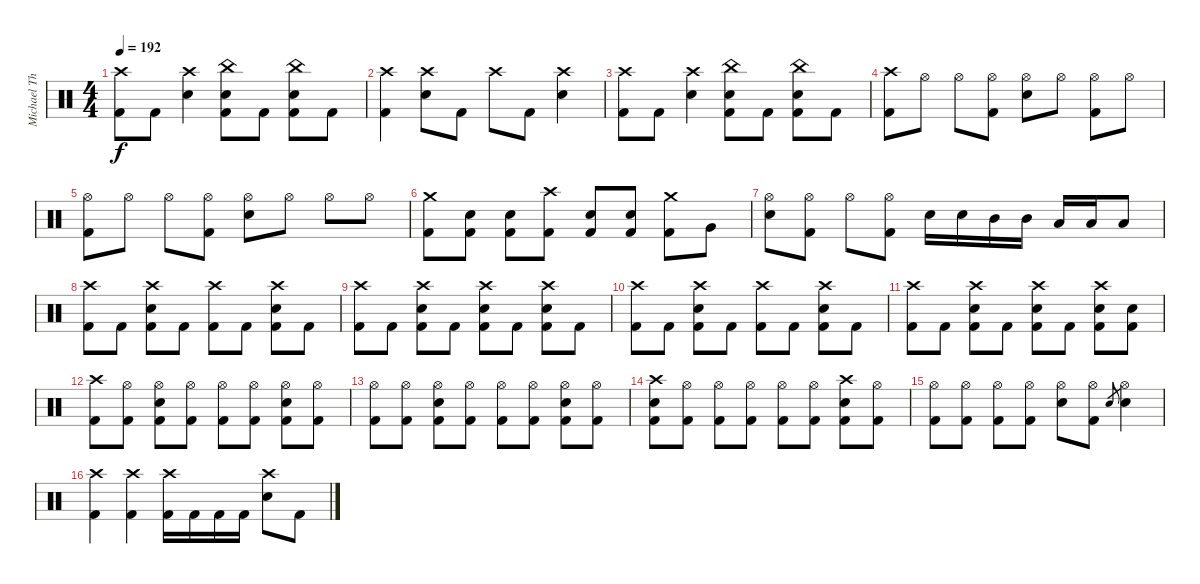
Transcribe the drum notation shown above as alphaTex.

\track ("Michael Thomas (Drums)" "Michael Th") {instrument percussion}
\staff {score}
\articulation defaults
\ts (4 4)
\tempo 192
\clef neutral
\ks c
("Crash high (hit)" "Kick (hit) 2").8{dy f} "Kick (hit) 2".8 ("Crash high (hit)" "Snare (hit) 2").4 ("China (hit)" "Snare (hit) 2" "Kick (hit) 2").8 "Kick (hit) 2".8 ("China (hit)" "Snare (hit) 2" "Kick (hit) 2").8 "Kick (hit) 2".8 |
("Crash high (hit)" "Kick (hit) 2").4 ("Crash high (hit)" "Snare (hit) 2").8 "Kick (hit) 2".8 "Crash high (hit)".8 "Kick (hit) 2".8 ("Crash high (hit)" "Snare (hit) 2").4 |
("Crash high (hit)" "Kick (hit) 2").8 "Kick (hit) 2".8 ("Crash high (hit)" "Snare (hit) 2").4 ("China (hit)" "Snare (hit) 2" "Kick (hit) 2").8 "Kick (hit) 2".8 ("China (hit)" "Snare (hit) 2" "Kick (hit) 2").8 "Kick (hit) 2".8 |
("Crash high (hit)" "Kick (hit) 2").8 "Hi-Hat (open)".8 "Hi-Hat (open)".8 ("Hi-Hat (open)" "Kick (hit) 2").8 ("Hi-Hat (open)" "Snare (hit) 2").8 "Hi-Hat (open)".8 ("Hi-Hat (open)" "Kick (hit) 2").8 "Hi-Hat (open)".8 |
("Hi-Hat (open)" "Kick (hit) 2").8 "Hi-Hat (open)".8 "Hi-Hat (open)".8 ("Hi-Hat (open)" "Kick (hit) 2").8 ("Hi-Hat (open)" "Snare (hit) 2").8 "Hi-Hat (open)".8 "Hi-Hat (open)".8 "Hi-Hat (open)".8 |
("Crash medium (hit)" "Kick (hit) 2").8 ("Snare (hit) 2" "Kick (hit) 2").8 ("Snare (hit) 2" "Kick (hit) 2").8 ("Crash high (hit)" "Kick (hit) 2").8 ("Snare (hit) 2" "Kick (hit) 2").8 ("Snare (hit) 2" "Kick (hit) 2").8 ("Crash medium (hit)" "Kick (hit) 2").8 "Very Low Tom (hit)".8 |
("Hi-Hat (open)" "Snare (hit) 2").8 ("Hi-Hat (open)" "Kick (hit) 2").8 "Hi-Hat (open)".8 ("Hi-Hat (open)" "Kick (hit) 2").8 "Snare (hit) 2".16 "Snare (hit) 2".16 "Mid Tom (hit)".16 "Mid Tom (hit)".16 "Low Tom (hit)".16 "Low Tom (hit)".16 "Low Floor Tom (hit)".8 |
("Crash high (hit)" "Kick (hit) 2").8 "Kick (hit) 2".8 ("Snare (hit) 2" "Crash high (hit)" "Kick (hit) 2").8 "Kick (hit) 2".8 ("Crash high (hit)" "Kick (hit) 2").8 "Kick (hit) 2".8 ("Snare (hit) 2" "Crash high (hit)" "Kick (hit) 2").8 "Kick (hit) 2".8 |
("Crash high (hit)" "Kick (hit) 2").8 "Kick (hit) 2".8 ("Snare (hit) 2" "Crash high (hit)" "Kick (hit) 2").8 "Kick (hit) 2".8 ("Crash high (hit)" "Snare (hit) 2" "Kick (hit) 2").8 "Kick (hit) 2".8 ("Crash high (hit)" "Snare (hit) 2" "Kick (hit) 2").8 "Kick (hit) 2".8 |
("Crash high (hit)" "Kick (hit) 2").8 "Kick (hit) 2".8 ("Snare (hit) 2" "Crash high (hit)" "Kick (hit) 2").8 "Kick (hit) 2".8 ("Crash high (hit)" "Kick (hit) 2").8 "Kick (hit) 2".8 ("Snare (hit) 2" "Crash high (hit)" "Kick (hit) 2").8 "Kick (hit) 2".8 |
("Crash high (hit)" "Kick (hit) 2").8 "Kick (hit) 2".8 ("Snare (hit) 2" "Crash high (hit)" "Kick (hit) 2").8 "Kick (hit) 2".8 ("Crash high (hit)" "Snare (hit) 2" "Kick (hit) 2").8 "Kick (hit) 2".8 ("Crash high (hit)" "Snare (hit) 2" "Kick (hit) 2").8 ("Snare (hit) 2" "Kick (hit) 2").8 |
("Crash high (hit)" "Kick (hit) 2").8 ("Hi-Hat (open)" "Kick (hit) 2").8 ("Hi-Hat (open)" "Snare (hit) 2" "Kick (hit) 2").8 ("Hi-Hat (open)" "Kick (hit) 2").8 ("Hi-Hat (open)" "Kick (hit) 2").8 ("Hi-Hat (open)" "Kick (hit) 2").8 ("Hi-Hat (open)" "Snare (hit) 2" "Kick (hit) 2").8 ("Hi-Hat (open)" "Kick (hit) 2").8 |
("Hi-Hat (open)" "Kick (hit) 2").8 ("Hi-Hat (open)" "Kick (hit) 2").8 ("Hi-Hat (open)" "Snare (hit) 2" "Kick (hit) 2").8 ("Hi-Hat (open)" "Kick (hit) 2").8 ("Hi-Hat (open)" "Kick (hit) 2").8 ("Hi-Hat (open)" "Kick (hit) 2").8 ("Hi-Hat (open)" "Snare (hit) 2" "Kick (hit) 2").8 ("Hi-Hat (open)" "Kick (hit) 2").8 |
("Crash high (hit)" "Snare (hit) 2" "Kick (hit) 2").8 ("Hi-Hat (open)" "Kick (hit) 2").8 ("Hi-Hat (open)" "Kick (hit) 2").8 ("Hi-Hat (open)" "Kick (hit) 2").8 ("Hi-Hat (open)" "Kick (hit) 2").8 ("Hi-Hat (open)" "Kick (hit) 2").8 ("Crash high (hit)" "Snare (hit) 2" "Kick (hit) 2").8 ("Hi-Hat (open)" "Kick (hit) 2").8 |
("Hi-Hat (open)" "Kick (hit) 2").8 ("Hi-Hat (open)" "Kick (hit) 2").8 ("Hi-Hat (open)" "Kick (hit) 2").8 ("Hi-Hat (open)" "Kick (hit) 2").8 ("Hi-Hat (open)" "Snare (hit) 2").8 ("Hi-Hat (open)" "Kick (hit) 2").8 "Snare (hit) 2".8{gr} ("Hi-Hat (open)" "Snare (hit) 2").4 |
("Crash high (hit)" "Kick (hit) 2").4 ("Crash high (hit)" "Kick (hit) 2").4 ("Crash high (hit)" "Kick (hit) 2").16 "Kick (hit) 2".16 "Kick (hit) 2".16 "Kick (hit) 2".16 ("Crash high (hit)" "Snare (hit) 2").8 "Kick (hit) 2".8
